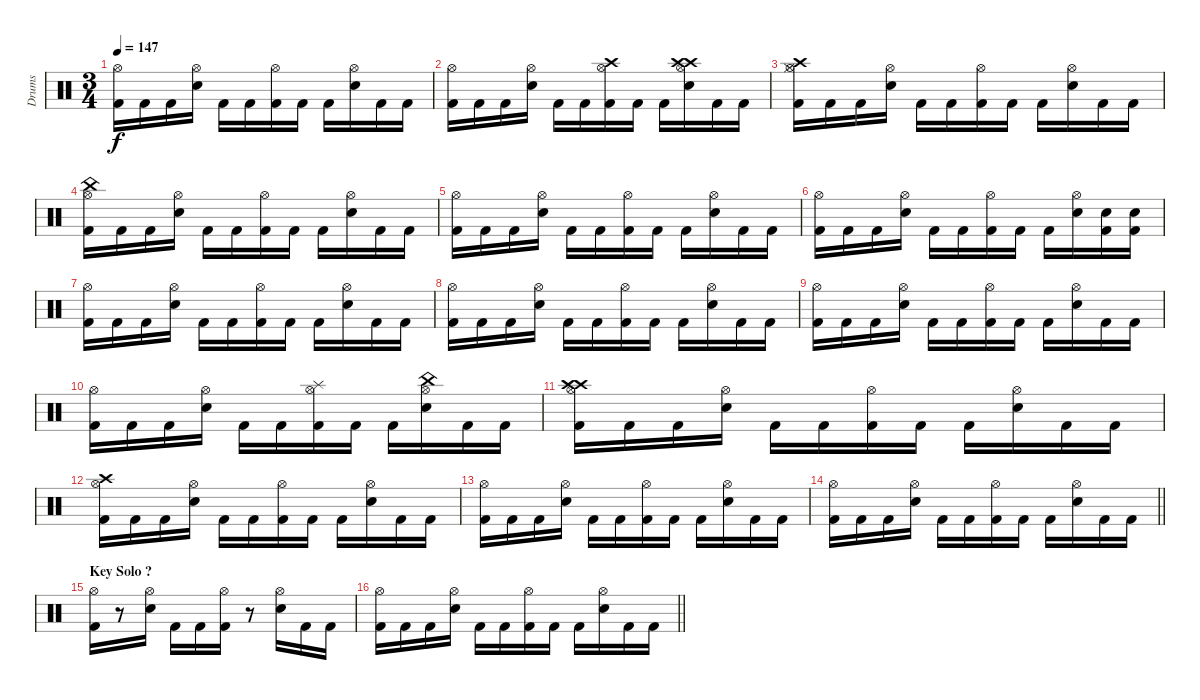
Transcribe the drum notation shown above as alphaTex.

\track ("Drums" "Drums") {instrument percussion}
\staff {score}
\articulation defaults
\ts (3 4)
\tempo 147
\clef neutral
\ks c
("Kick (hit) 2" "Hi-Hat (open)").16{dy f} "Kick (hit) 2".16 "Kick (hit) 2".16 ("Snare (hit) 2" "Hi-Hat (open)").16 "Kick (hit) 2".16 "Kick (hit) 2".16 ("Kick (hit) 2" "Hi-Hat (open)").16 "Kick (hit) 2".16 "Kick (hit) 2".16 ("Snare (hit) 2" "Hi-Hat (open)").16 "Kick (hit) 2".16 "Kick (hit) 2".16 |
("Kick (hit) 2" "Hi-Hat (open)").16 "Kick (hit) 2".16 "Kick (hit) 2".16 ("Snare (hit) 2" "Hi-Hat (open)").16 "Kick (hit) 2".16 "Kick (hit) 2".16 ("Kick (hit) 2" "Crash high (hit)" "Hi-Hat (open)").16 "Kick (hit) 2".16 "Kick (hit) 2".16 ("Snare (hit) 2" "Crash high (hit)" "Hi-Hat (open)" "Crash high (hit)").16 "Kick (hit) 2".16 "Kick (hit) 2".16 |
("Kick (hit) 2" "Crash high (hit)" "Hi-Hat (open)" "Hi-Hat (closed)").16 "Kick (hit) 2".16 "Kick (hit) 2".16 ("Snare (hit) 2" "Hi-Hat (open)").16 "Kick (hit) 2".16 "Kick (hit) 2".16 ("Kick (hit) 2" "Hi-Hat (open)").16 "Kick (hit) 2".16 "Kick (hit) 2".16 ("Snare (hit) 2" "Hi-Hat (open)").16 "Kick (hit) 2".16 "Kick (hit) 2".16 |
("Kick (hit) 2" "China (hit)" "Hi-Hat (open)").16 "Kick (hit) 2".16 "Kick (hit) 2".16 ("Snare (hit) 2" "Hi-Hat (open)").16 "Kick (hit) 2".16 "Kick (hit) 2".16 ("Kick (hit) 2" "Hi-Hat (open)").16 "Kick (hit) 2".16 "Kick (hit) 2".16 ("Snare (hit) 2" "Hi-Hat (open)").16 "Kick (hit) 2".16 "Kick (hit) 2".16 |
("Kick (hit) 2" "Hi-Hat (open)").16 "Kick (hit) 2".16 "Kick (hit) 2".16 ("Snare (hit) 2" "Hi-Hat (open)").16 "Kick (hit) 2".16 "Kick (hit) 2".16 ("Kick (hit) 2" "Hi-Hat (open)").16 "Kick (hit) 2".16 "Kick (hit) 2".16 ("Snare (hit) 2" "Hi-Hat (open)").16 "Kick (hit) 2".16 "Kick (hit) 2".16 |
("Kick (hit) 2" "Hi-Hat (open)").16 "Kick (hit) 2".16 "Kick (hit) 2".16 ("Snare (hit) 2" "Hi-Hat (open)").16 "Kick (hit) 2".16 "Kick (hit) 2".16 ("Kick (hit) 2" "Hi-Hat (open)").16 "Kick (hit) 2".16 "Kick (hit) 2".16 ("Snare (hit) 2" "Hi-Hat (open)").16 ("Kick (hit) 2" "Snare (hit) 2").16 ("Kick (hit) 2" "Snare (hit) 2").16 |
("Kick (hit) 2" "Hi-Hat (open)").16 "Kick (hit) 2".16 "Kick (hit) 2".16 ("Snare (hit) 2" "Hi-Hat (open)").16 "Kick (hit) 2".16 "Kick (hit) 2".16 ("Kick (hit) 2" "Hi-Hat (open)").16 "Kick (hit) 2".16 "Kick (hit) 2".16 ("Snare (hit) 2" "Hi-Hat (open)").16 "Kick (hit) 2".16 "Kick (hit) 2".16 |
("Kick (hit) 2" "Hi-Hat (open)").16 "Kick (hit) 2".16 "Kick (hit) 2".16 ("Snare (hit) 2" "Hi-Hat (open)").16 "Kick (hit) 2".16 "Kick (hit) 2".16 ("Kick (hit) 2" "Hi-Hat (open)").16 "Kick (hit) 2".16 "Kick (hit) 2".16 ("Snare (hit) 2" "Hi-Hat (open)").16 "Kick (hit) 2".16 "Kick (hit) 2".16 |
("Kick (hit) 2" "Hi-Hat (open)").16 "Kick (hit) 2".16 "Kick (hit) 2".16 ("Snare (hit) 2" "Hi-Hat (open)").16 "Kick (hit) 2".16 "Kick (hit) 2".16 ("Kick (hit) 2" "Hi-Hat (open)").16 "Kick (hit) 2".16 "Kick (hit) 2".16 ("Snare (hit) 2" "Hi-Hat (open)").16 "Kick (hit) 2".16 "Kick (hit) 2".16 |
("Kick (hit) 2" "Hi-Hat (open)").16 "Kick (hit) 2".16 "Kick (hit) 2".16 ("Snare (hit) 2" "Hi-Hat (open)").16 "Kick (hit) 2".16 "Kick (hit) 2".16 ("Kick (hit) 2" "Splash (hit)" "Hi-Hat (open)").16 "Kick (hit) 2".16 "Kick (hit) 2".16 ("Snare (hit) 2" "China (hit)" "Hi-Hat (open)").16 "Kick (hit) 2".16 "Kick (hit) 2".16 |
("Kick (hit) 2" "Crash high (hit)" "Hi-Hat (open)" "Crash high (hit)").16 "Kick (hit) 2".16 "Kick (hit) 2".16 ("Snare (hit) 2" "Hi-Hat (open)").16 "Kick (hit) 2".16 "Kick (hit) 2".16 ("Kick (hit) 2" "Hi-Hat (open)").16 "Kick (hit) 2".16 "Kick (hit) 2".16 ("Snare (hit) 2" "Hi-Hat (open)").16 "Kick (hit) 2".16 "Kick (hit) 2".16 |
("Kick (hit) 2" "Crash high (hit)" "Hi-Hat (open)").16 "Kick (hit) 2".16 "Kick (hit) 2".16 ("Snare (hit) 2" "Hi-Hat (open)").16 "Kick (hit) 2".16 "Kick (hit) 2".16 ("Kick (hit) 2" "Hi-Hat (open)").16 "Kick (hit) 2".16 "Kick (hit) 2".16 ("Snare (hit) 2" "Hi-Hat (open)").16 "Kick (hit) 2".16 "Kick (hit) 2".16 |
("Kick (hit) 2" "Hi-Hat (open)").16 "Kick (hit) 2".16 "Kick (hit) 2".16 ("Snare (hit) 2" "Hi-Hat (open)").16 "Kick (hit) 2".16 "Kick (hit) 2".16 ("Kick (hit) 2" "Hi-Hat (open)").16 "Kick (hit) 2".16 "Kick (hit) 2".16 ("Snare (hit) 2" "Hi-Hat (open)").16 "Kick (hit) 2".16 "Kick (hit) 2".16 |
\barLineRight lightlight
("Kick (hit) 2" "Hi-Hat (open)").16 "Kick (hit) 2".16 "Kick (hit) 2".16 ("Snare (hit) 2" "Hi-Hat (open)").16 "Kick (hit) 2".16 "Kick (hit) 2".16 ("Kick (hit) 2" "Hi-Hat (open)").16 "Kick (hit) 2".16 "Kick (hit) 2".16 ("Snare (hit) 2" "Hi-Hat (open)").16 "Kick (hit) 2".16 "Kick (hit) 2".16 |
\section ("" "Key Solo ?")
("Kick (hit) 2" "Hi-Hat (open)").16 r.8 ("Snare (hit) 2" "Hi-Hat (open)").16 "Kick (hit) 2".16 "Kick (hit) 2".16 ("Kick (hit) 2" "Hi-Hat (open)").16 r.8 ("Snare (hit) 2" "Hi-Hat (open)").16 "Kick (hit) 2".16 "Kick (hit) 2".16 |
\barLineRight lightlight
("Kick (hit) 2" "Hi-Hat (open)").16 "Kick (hit) 2".16 "Kick (hit) 2".16 ("Snare (hit) 2" "Hi-Hat (open)").16 "Kick (hit) 2".16 "Kick (hit) 2".16 ("Kick (hit) 2" "Hi-Hat (open)").16 "Kick (hit) 2".16 "Kick (hit) 2".16 ("Snare (hit) 2" "Hi-Hat (open)").16 "Kick (hit) 2".16 "Kick (hit) 2".16
